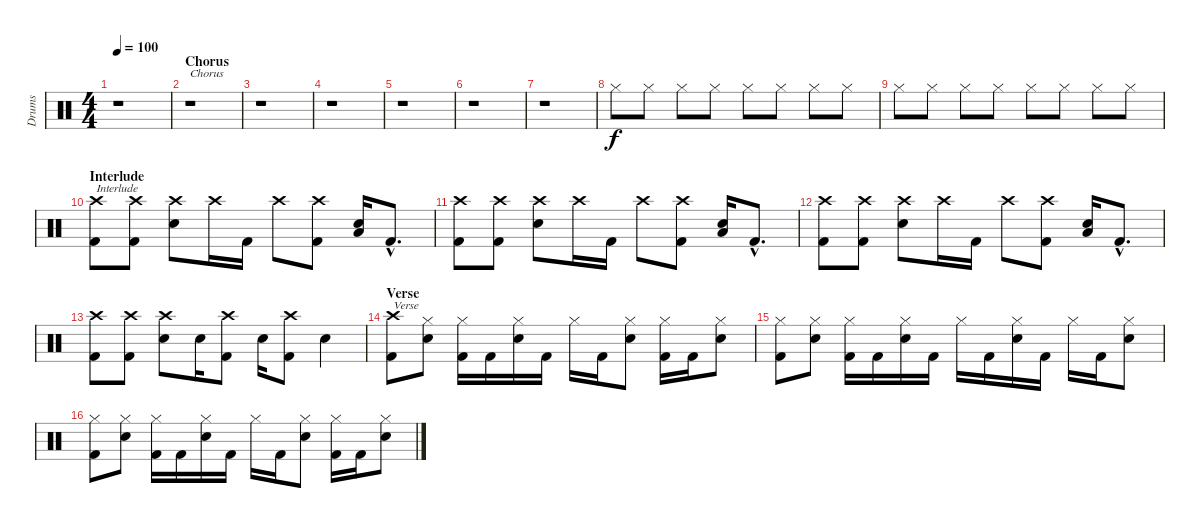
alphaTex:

\track ("Drums" "Drums") {instrument percussion}
\staff {score}
\articulation defaults
\ts (4 4)
\tempo 100
\clef neutral
\ks c
r.1{dy f} |
\section ("" "Chorus")
r.1{txt "Chorus"} |
r.1 |
r.1 |
r.1 |
r.1 |
r.1 |
"Hi-Hat (closed)".8 "Hi-Hat (closed)".8 "Hi-Hat (closed)".8 "Hi-Hat (closed)".8 "Hi-Hat (closed)".8 "Hi-Hat (closed)".8 "Hi-Hat (closed)".8 "Hi-Hat (closed)".8 |
"Hi-Hat (closed)".8 "Hi-Hat (closed)".8 "Hi-Hat (closed)".8 "Hi-Hat (closed)".8 "Hi-Hat (closed)".8 "Hi-Hat (closed)".8 "Hi-Hat (closed)".8 "Hi-Hat (closed)".8 |
\section ("" "Interlude")
("Crash high (hit)" "Kick (hit) 2").8{txt "Interlude"} ("Crash high (hit)" "Kick (hit) 2").8 ("Crash high (hit)" "Electric Snare (hit)").8 "Crash high (hit)".16 "Kick (hit) 2".16 "Crash high (hit)".8 ("Crash high (hit)" "Kick (hit) 2").8 ("Electric Snare (hit)" "Low Floor Tom (hit)").16 "Kick (hit) 2"{hac}.8{d} |
("Crash high (hit)" "Kick (hit) 2").8 ("Crash high (hit)" "Kick (hit) 2").8 ("Crash high (hit)" "Electric Snare (hit)").8 "Crash high (hit)".16 "Kick (hit) 2".16 "Crash high (hit)".8 ("Crash high (hit)" "Kick (hit) 2").8 ("Electric Snare (hit)" "Low Floor Tom (hit)").16 "Kick (hit) 2"{hac}.8{d} |
("Crash high (hit)" "Kick (hit) 2").8 ("Crash high (hit)" "Kick (hit) 2").8 ("Crash high (hit)" "Electric Snare (hit)").8 "Crash high (hit)".16 "Kick (hit) 2".16 "Crash high (hit)".8 ("Crash high (hit)" "Kick (hit) 2").8 ("Electric Snare (hit)" "Low Floor Tom (hit)").16 "Kick (hit) 2"{hac}.8{d} |
("Crash high (hit)" "Kick (hit) 2").8 ("Crash high (hit)" "Kick (hit) 2").8 ("Crash high (hit)" "Electric Snare (hit)").8 "Electric Snare (hit)".16 ("Crash high (hit)" "Kick (hit) 2").8 "Electric Snare (hit)".16 ("Crash high (hit)" "Kick (hit) 2").8 "Electric Snare (hit)".4 |
\section ("" "Verse")
("Crash high (hit)" "Kick (hit) 2").8{txt "Verse"} ("Hi-Hat (closed)" "Electric Snare (hit)").8 ("Hi-Hat (closed)" "Kick (hit) 2").16 "Kick (hit) 2".16 ("Hi-Hat (closed)" "Electric Snare (hit)").16 "Kick (hit) 2".16 "Hi-Hat (closed)".16 "Kick (hit) 2".16 ("Hi-Hat (closed)" "Electric Snare (hit)").8 ("Hi-Hat (closed)" "Kick (hit) 2").16 "Kick (hit) 2".16 ("Hi-Hat (closed)" "Electric Snare (hit)").8 |
("Hi-Hat (closed)" "Kick (hit) 2").8 ("Hi-Hat (closed)" "Electric Snare (hit)").8 ("Hi-Hat (closed)" "Kick (hit) 2").16 "Kick (hit) 2".16 ("Hi-Hat (closed)" "Electric Snare (hit)").16 "Kick (hit) 2".16 "Hi-Hat (closed)".16 "Kick (hit) 2".16 ("Hi-Hat (closed)" "Electric Snare (hit)").16 "Kick (hit) 2".16 "Hi-Hat (closed)".16 "Kick (hit) 2".16 ("Hi-Hat (closed)" "Electric Snare (hit)").8 |
("Hi-Hat (closed)" "Kick (hit) 2").8 ("Hi-Hat (closed)" "Electric Snare (hit)").8 ("Hi-Hat (closed)" "Kick (hit) 2").16 "Kick (hit) 2".16 ("Hi-Hat (closed)" "Electric Snare (hit)").16 "Kick (hit) 2".16 "Hi-Hat (closed)".16 "Kick (hit) 2".16 ("Hi-Hat (closed)" "Electric Snare (hit)").8 ("Hi-Hat (closed)" "Kick (hit) 2").16 "Kick (hit) 2".16 ("Hi-Hat (closed)" "Electric Snare (hit)").8
